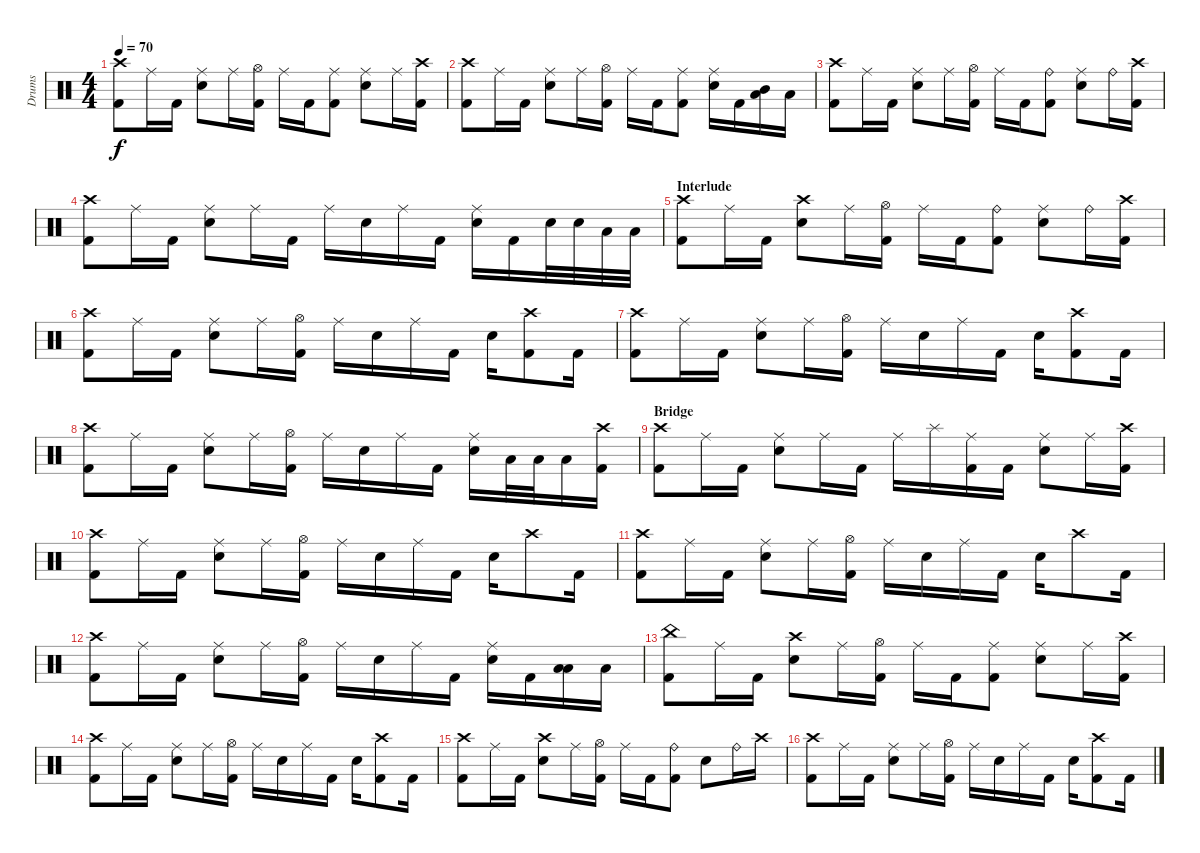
\track ("Drums" "Drums") {instrument percussion}
\staff {score}
\articulation defaults
\ts (4 4)
\tempo 70
\clef neutral
\ks c
("Crash high (hit)" "Kick (hit) 2").8{dy f} "Ride (middle)".16 "Kick (hit) 2".16 ("Ride (middle)" "Electric Snare (hit)").8 "Ride (middle)".16 ("Hi-Hat (open)" "Kick (hit) 2").16 "Ride (middle)".16 "Kick (hit) 2".16 ("Ride (middle)" "Kick (hit) 2").8 ("Ride (middle)" "Electric Snare (hit)").8 "Ride (middle)".16 ("Crash high (hit)" "Kick (hit) 2").16 |
("Crash high (hit)" "Kick (hit) 2").8 "Ride (middle)".16 "Kick (hit) 2".16 ("Ride (middle)" "Electric Snare (hit)").8 "Ride (middle)".16 ("Hi-Hat (open)" "Kick (hit) 2").16 "Ride (middle)".16 "Kick (hit) 2".16 ("Ride (middle)" "Kick (hit) 2").8 ("Ride (middle)" "Electric Snare (hit)").16 "Kick (hit) 2".16 ("Low Tom (hit)" "Mid Tom (hit)").16 "Low Tom (hit)".16 |
("Crash high (hit)" "Kick (hit) 2").8 "Ride (middle)".16 "Kick (hit) 2".16 ("Ride (middle)" "Electric Snare (hit)").8 "Ride (middle)".16 ("Hi-Hat (open)" "Kick (hit) 2").16 "Ride (middle)".16 "Kick (hit) 2".16 ("Ride (bell)" "Kick (hit) 2").8 ("Ride (middle)" "Electric Snare (hit)").8 "Ride (bell)".16 ("Crash high (hit)" "Kick (hit) 2").16 |
("Crash high (hit)" "Kick (hit) 2").8 "Ride (middle)".16 "Kick (hit) 2".16 ("Ride (middle)" "Electric Snare (hit)").8 "Ride (middle)".16 "Kick (hit) 2".16 "Ride (middle)".16 "Electric Snare (hit)".16 "Ride (middle)".16 "Kick (hit) 2".16 ("Ride (middle)" "Electric Snare (hit)").16 "Kick (hit) 2".16 "Electric Snare (hit)".32 "Electric Snare (hit)".32 "Low Tom (hit)".32 "Low Tom (hit)".32 |
\section ("" "Interlude")
("Crash high (hit)" "Kick (hit) 2").8 "Ride (middle)".16 "Kick (hit) 2".16 ("Crash high (hit)" "Electric Snare (hit)").8 "Ride (middle)".16 ("Hi-Hat (open)" "Kick (hit) 2").16 "Ride (middle)".16 "Kick (hit) 2".16 ("Ride (bell)" "Kick (hit) 2").8 ("Ride (middle)" "Electric Snare (hit)").8 "Ride (bell)".16 ("Crash high (hit)" "Kick (hit) 2").16 |
("Crash high (hit)" "Kick (hit) 2").8 "Ride (middle)".16 "Kick (hit) 2".16 ("Ride (middle)" "Electric Snare (hit)").8 "Ride (middle)".16 ("Hi-Hat (open)" "Kick (hit) 2").16 "Ride (middle)".16 "Electric Snare (hit)".16 "Ride (middle)".16 "Kick (hit) 2".16 "Electric Snare (hit)".16 ("Crash high (hit)" "Kick (hit) 2").8 "Kick (hit) 2".16 |
("Crash high (hit)" "Kick (hit) 2").8 "Ride (middle)".16 "Kick (hit) 2".16 ("Ride (middle)" "Electric Snare (hit)").8 "Ride (middle)".16 ("Hi-Hat (open)" "Kick (hit) 2").16 "Ride (middle)".16 "Electric Snare (hit)".16 "Ride (middle)".16 "Kick (hit) 2".16 "Electric Snare (hit)".16 ("Crash high (hit)" "Kick (hit) 2").8 "Kick (hit) 2".16 |
("Crash high (hit)" "Kick (hit) 2").8 "Ride (middle)".16 "Kick (hit) 2".16 ("Ride (middle)" "Electric Snare (hit)").8 "Ride (middle)".16 ("Hi-Hat (open)" "Kick (hit) 2").16 "Ride (middle)".16 "Electric Snare (hit)".16 "Ride (middle)".16 "Kick (hit) 2".16 ("Ride (middle)" "Electric Snare (hit)").16 "Low Tom (hit)".32 "Low Tom (hit)".32 "Low Floor Tom (hit)".16 ("Crash high (hit)" "Kick (hit) 2").16 |
\section ("" "Bridge")
("Crash high (hit)" "Kick (hit) 2").8 "Ride (middle)".16 "Kick (hit) 2".16 ("Ride (middle)" "Electric Snare (hit)").8 "Ride (middle)".16 "Kick (hit) 2".16 "Ride (middle)".16 "Splash (hit)".16 ("Ride (middle)" "Kick (hit) 2").16 "Kick (hit) 2".16 ("Ride (middle)" "Electric Snare (hit)").8 "Ride (middle)".16 ("Crash high (hit)" "Kick (hit) 2").16 |
("Crash high (hit)" "Kick (hit) 2").8 "Ride (middle)".16 "Kick (hit) 2".16 ("Ride (middle)" "Electric Snare (hit)").8 "Ride (middle)".16 ("Hi-Hat (open)" "Kick (hit) 2").16 "Ride (middle)".16 "Electric Snare (hit)".16 "Ride (middle)".16 "Kick (hit) 2".16 "Electric Snare (hit)".16 "Crash high (hit)".8 "Kick (hit) 2".16 |
("Crash high (hit)" "Kick (hit) 2").8 "Ride (middle)".16 "Kick (hit) 2".16 ("Ride (middle)" "Electric Snare (hit)").8 "Ride (middle)".16 ("Hi-Hat (open)" "Kick (hit) 2").16 "Ride (middle)".16 "Electric Snare (hit)".16 "Ride (middle)".16 "Kick (hit) 2".16 "Electric Snare (hit)".16 "Crash high (hit)".8 "Kick (hit) 2".16 |
("Crash high (hit)" "Kick (hit) 2").8 "Ride (middle)".16 "Kick (hit) 2".16 ("Ride (middle)" "Electric Snare (hit)").8 "Ride (middle)".16 ("Hi-Hat (open)" "Kick (hit) 2").16 "Ride (middle)".16 "Electric Snare (hit)".16 "Ride (middle)".16 "Kick (hit) 2".16 ("Ride (middle)" "Electric Snare (hit)").16 "Kick (hit) 2".16 ("Low Floor Tom (hit)" "Low Tom (hit)").16 "Low Tom (hit)".16 |
("China (hit)" "Kick (hit) 2").8 "Ride (middle)".16 "Kick (hit) 2".16 ("Crash high (hit)" "Electric Snare (hit)").8 "Ride (middle)".16 ("Hi-Hat (open)" "Kick (hit) 2").16 "Ride (middle)".16 "Kick (hit) 2".16 ("Ride (middle)" "Kick (hit) 2").8 ("Ride (middle)" "Electric Snare (hit)").8 "Ride (middle)".16 ("Crash high (hit)" "Kick (hit) 2").16 |
("Crash high (hit)" "Kick (hit) 2").8 "Ride (middle)".16 "Kick (hit) 2".16 ("Ride (middle)" "Electric Snare (hit)").8 "Ride (middle)".16 ("Hi-Hat (open)" "Kick (hit) 2").16 "Ride (middle)".16 "Electric Snare (hit)".16 "Ride (middle)".16 "Kick (hit) 2".16 "Electric Snare (hit)".16 ("Crash high (hit)" "Kick (hit) 2").8 "Kick (hit) 2".16 |
("Crash high (hit)" "Kick (hit) 2").8 "Ride (middle)".16 "Kick (hit) 2".16 ("Crash high (hit)" "Electric Snare (hit)").8 "Ride (middle)".16 ("Hi-Hat (open)" "Kick (hit) 2").16 "Ride (middle)".16 "Kick (hit) 2".16 ("Ride (bell)" "Kick (hit) 2").8 "Electric Snare (hit)".8 "Ride (bell)".16 "Crash high (hit)".16 |
("Crash high (hit)" "Kick (hit) 2").8 "Ride (middle)".16 "Kick (hit) 2".16 ("Ride (middle)" "Electric Snare (hit)").8 "Ride (middle)".16 ("Hi-Hat (open)" "Kick (hit) 2").16 "Ride (middle)".16 "Electric Snare (hit)".16 "Ride (middle)".16 "Kick (hit) 2".16 "Electric Snare (hit)".16 ("Crash high (hit)" "Kick (hit) 2").8 "Kick (hit) 2".16
